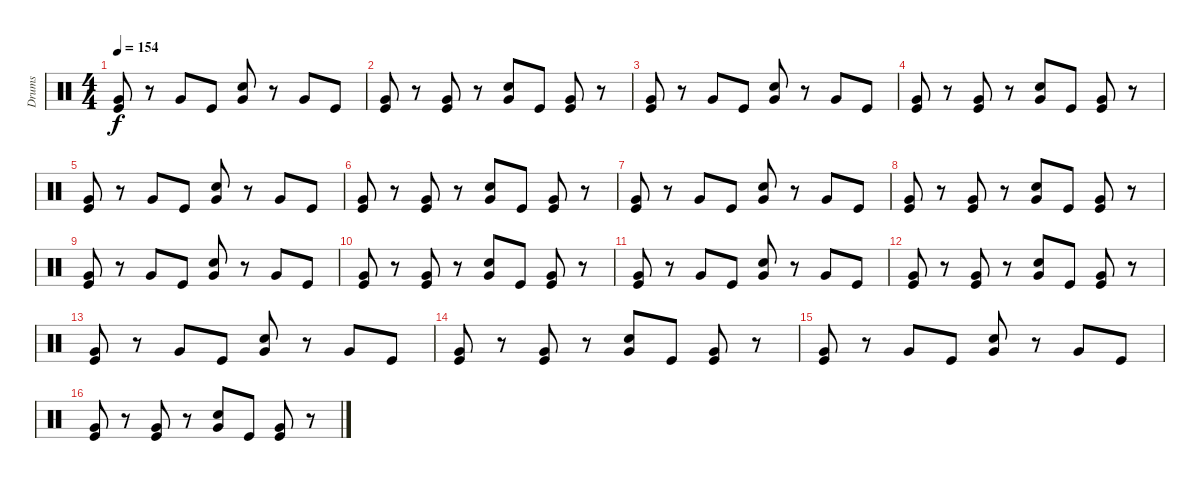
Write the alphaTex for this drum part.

\track ("Drums" "Drums") {instrument percussion}
\staff {score}
\articulation defaults
\ts (4 4)
\tempo 154
\clef neutral
\ks c
("Very Low Tom (hit)" "Kick (hit)").8{dy f} r.8 "Very Low Tom (hit)".8 "Kick (hit)".8 ("Very Low Tom (hit)" "Electric Snare (hit)").8 r.8 "Very Low Tom (hit)".8 "Kick (hit)".8 |
("Very Low Tom (hit)" "Kick (hit)").8 r.8 ("Very Low Tom (hit)" "Kick (hit)").8 r.8 ("Very Low Tom (hit)" "Electric Snare (hit)").8 "Kick (hit)".8 ("Very Low Tom (hit)" "Kick (hit)").8 r.8 |
("Very Low Tom (hit)" "Kick (hit)").8 r.8 "Very Low Tom (hit)".8 "Kick (hit)".8 ("Very Low Tom (hit)" "Electric Snare (hit)").8 r.8 "Very Low Tom (hit)".8 "Kick (hit)".8 |
("Very Low Tom (hit)" "Kick (hit)").8 r.8 ("Very Low Tom (hit)" "Kick (hit)").8 r.8 ("Very Low Tom (hit)" "Electric Snare (hit)").8 "Kick (hit)".8 ("Very Low Tom (hit)" "Kick (hit)").8 r.8 |
("Very Low Tom (hit)" "Kick (hit)").8 r.8 "Very Low Tom (hit)".8 "Kick (hit)".8 ("Very Low Tom (hit)" "Electric Snare (hit)").8 r.8 "Very Low Tom (hit)".8 "Kick (hit)".8 |
("Very Low Tom (hit)" "Kick (hit)").8 r.8 ("Very Low Tom (hit)" "Kick (hit)").8 r.8 ("Very Low Tom (hit)" "Electric Snare (hit)").8 "Kick (hit)".8 ("Very Low Tom (hit)" "Kick (hit)").8 r.8 |
("Very Low Tom (hit)" "Kick (hit)").8 r.8 "Very Low Tom (hit)".8 "Kick (hit)".8 ("Very Low Tom (hit)" "Electric Snare (hit)").8 r.8 "Very Low Tom (hit)".8 "Kick (hit)".8 |
("Very Low Tom (hit)" "Kick (hit)").8 r.8 ("Very Low Tom (hit)" "Kick (hit)").8 r.8 ("Very Low Tom (hit)" "Electric Snare (hit)").8 "Kick (hit)".8 ("Very Low Tom (hit)" "Kick (hit)").8 r.8 |
("Very Low Tom (hit)" "Kick (hit)").8 r.8 "Very Low Tom (hit)".8 "Kick (hit)".8 ("Very Low Tom (hit)" "Electric Snare (hit)").8 r.8 "Very Low Tom (hit)".8 "Kick (hit)".8 |
("Very Low Tom (hit)" "Kick (hit)").8 r.8 ("Very Low Tom (hit)" "Kick (hit)").8 r.8 ("Very Low Tom (hit)" "Electric Snare (hit)").8 "Kick (hit)".8 ("Very Low Tom (hit)" "Kick (hit)").8 r.8 |
("Very Low Tom (hit)" "Kick (hit)").8 r.8 "Very Low Tom (hit)".8 "Kick (hit)".8 ("Very Low Tom (hit)" "Electric Snare (hit)").8 r.8 "Very Low Tom (hit)".8 "Kick (hit)".8 |
("Very Low Tom (hit)" "Kick (hit)").8 r.8 ("Very Low Tom (hit)" "Kick (hit)").8 r.8 ("Very Low Tom (hit)" "Electric Snare (hit)").8 "Kick (hit)".8 ("Very Low Tom (hit)" "Kick (hit)").8 r.8 |
("Very Low Tom (hit)" "Kick (hit)").8 r.8 "Very Low Tom (hit)".8 "Kick (hit)".8 ("Very Low Tom (hit)" "Electric Snare (hit)").8 r.8 "Very Low Tom (hit)".8 "Kick (hit)".8 |
("Very Low Tom (hit)" "Kick (hit)").8 r.8 ("Very Low Tom (hit)" "Kick (hit)").8 r.8 ("Very Low Tom (hit)" "Electric Snare (hit)").8 "Kick (hit)".8 ("Very Low Tom (hit)" "Kick (hit)").8 r.8 |
("Very Low Tom (hit)" "Kick (hit)").8 r.8 "Very Low Tom (hit)".8 "Kick (hit)".8 ("Very Low Tom (hit)" "Electric Snare (hit)").8 r.8 "Very Low Tom (hit)".8 "Kick (hit)".8 |
("Very Low Tom (hit)" "Kick (hit)").8 r.8 ("Very Low Tom (hit)" "Kick (hit)").8 r.8 ("Very Low Tom (hit)" "Electric Snare (hit)").8 "Kick (hit)".8 ("Very Low Tom (hit)" "Kick (hit)").8 r.8
